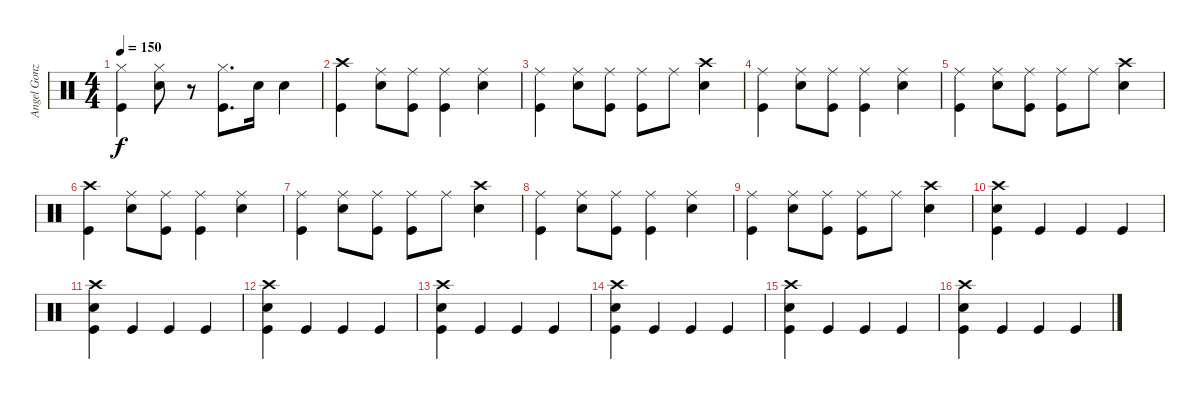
\track ("Angel González - Batería" "Angel Gonz") {instrument percussion}
\staff {score}
\articulation defaults
\ts (4 4)
\tempo 150
\clef neutral
\ks c
("Hi-Hat (closed)" "Kick (hit)").4{dy f} ("Hi-Hat (closed)" "Electric Snare (hit)").8 r.8 ("Hi-Hat (closed)" "Kick (hit)").8{d} "Electric Snare (hit)".16 "Electric Snare (hit)".4 |
("Crash high (hit)" "Kick (hit)").4 ("Ride (middle)" "Electric Snare (hit)").8 ("Ride (middle)" "Kick (hit)").8 ("Ride (middle)" "Kick (hit)").4 ("Ride (middle)" "Electric Snare (hit)").4 |
("Ride (middle)" "Kick (hit)").4 ("Ride (middle)" "Electric Snare (hit)").8 ("Ride (middle)" "Kick (hit)").8 ("Ride (middle)" "Kick (hit)").8 "Ride (middle)".8 ("Crash high (hit)" "Electric Snare (hit)").4 |
("Ride (middle)" "Kick (hit)").4 ("Ride (middle)" "Electric Snare (hit)").8 ("Ride (middle)" "Kick (hit)").8 ("Ride (middle)" "Kick (hit)").4 ("Ride (middle)" "Electric Snare (hit)").4 |
("Ride (middle)" "Kick (hit)").4 ("Ride (middle)" "Electric Snare (hit)").8 ("Ride (middle)" "Kick (hit)").8 ("Ride (middle)" "Kick (hit)").8 "Ride (middle)".8 ("Crash high (hit)" "Electric Snare (hit)").4 |
("Crash high (hit)" "Kick (hit)").4 ("Ride (middle)" "Electric Snare (hit)").8 ("Ride (middle)" "Kick (hit)").8 ("Ride (middle)" "Kick (hit)").4 ("Ride (middle)" "Electric Snare (hit)").4 |
("Ride (middle)" "Kick (hit)").4 ("Ride (middle)" "Electric Snare (hit)").8 ("Ride (middle)" "Kick (hit)").8 ("Ride (middle)" "Kick (hit)").8 "Ride (middle)".8 ("Crash high (hit)" "Electric Snare (hit)").4 |
("Ride (middle)" "Kick (hit)").4 ("Ride (middle)" "Electric Snare (hit)").8 ("Ride (middle)" "Kick (hit)").8 ("Ride (middle)" "Kick (hit)").4 ("Ride (middle)" "Electric Snare (hit)").4 |
("Ride (middle)" "Kick (hit)").4 ("Ride (middle)" "Electric Snare (hit)").8 ("Ride (middle)" "Kick (hit)").8 ("Ride (middle)" "Kick (hit)").8 "Ride (middle)".8 ("Crash high (hit)" "Electric Snare (hit)").4 |
("Crash high (hit)" "Electric Snare (hit)" "Kick (hit)").4 "Kick (hit)".4 "Kick (hit)".4 "Kick (hit)".4 |
("Crash high (hit)" "Electric Snare (hit)" "Kick (hit)").4 "Kick (hit)".4 "Kick (hit)".4 "Kick (hit)".4 |
("Crash high (hit)" "Electric Snare (hit)" "Kick (hit)").4 "Kick (hit)".4 "Kick (hit)".4 "Kick (hit)".4 |
("Crash high (hit)" "Electric Snare (hit)" "Kick (hit)").4 "Kick (hit)".4 "Kick (hit)".4 "Kick (hit)".4 |
("Crash high (hit)" "Electric Snare (hit)" "Kick (hit)").4 "Kick (hit)".4 "Kick (hit)".4 "Kick (hit)".4 |
("Crash high (hit)" "Electric Snare (hit)" "Kick (hit)").4 "Kick (hit)".4 "Kick (hit)".4 "Kick (hit)".4 |
("Crash high (hit)" "Electric Snare (hit)" "Kick (hit)").4 "Kick (hit)".4 "Kick (hit)".4 "Kick (hit)".4
